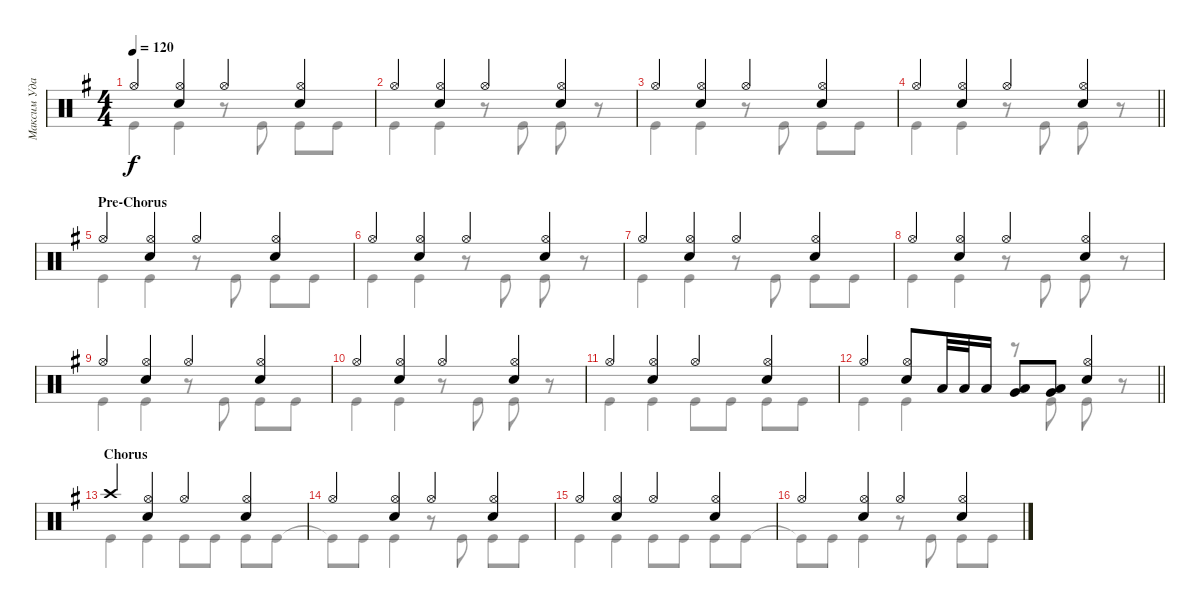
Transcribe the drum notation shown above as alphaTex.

\track ("Максим Удалов" "Максим Уда") {instrument percussion}
\staff {score}
\articulation defaults
\voice
\ts (4 4)
\tempo 120
\clef neutral
\ks g "Hi-Hat (open)".4{dy f}
("Snare (hit) 2" "Hi-Hat (open)").4 "Hi-Hat (open)".4 ("Snare (hit) 2" "Hi-Hat (open)").4 |
"Hi-Hat (open)".4 ("Snare (hit) 2" "Hi-Hat (open)").4 "Hi-Hat (open)".4 ("Snare (hit) 2" "Hi-Hat (open)").4 |
"Hi-Hat (open)".4 ("Snare (hit) 2" "Hi-Hat (open)").4 "Hi-Hat (open)".4 ("Snare (hit) 2" "Hi-Hat (open)").4 |
\barLineRight lightlight "Hi-Hat (open)".4
("Snare (hit) 2" "Hi-Hat (open)").4 "Hi-Hat (open)".4 ("Snare (hit) 2" "Hi-Hat (open)").4 |
\section ("" "Pre-Chorus")
"Hi-Hat (open)".4 ("Snare (hit) 2" "Hi-Hat (open)").4 "Hi-Hat (open)".4 ("Snare (hit) 2" "Hi-Hat (open)").4 |
"Hi-Hat (open)".4 ("Snare (hit) 2" "Hi-Hat (open)").4 "Hi-Hat (open)".4 ("Snare (hit) 2" "Hi-Hat (open)").4 |
"Hi-Hat (open)".4 ("Snare (hit) 2" "Hi-Hat (open)").4 "Hi-Hat (open)".4 ("Snare (hit) 2" "Hi-Hat (open)").4 |
"Hi-Hat (open)".4 ("Snare (hit) 2" "Hi-Hat (open)").4 "Hi-Hat (open)".4 ("Snare (hit) 2" "Hi-Hat (open)").4 |
"Hi-Hat (open)".4 ("Snare (hit) 2" "Hi-Hat (open)").4 "Hi-Hat (open)".4 ("Snare (hit) 2" "Hi-Hat (open)").4 |
"Hi-Hat (open)".4 ("Snare (hit) 2" "Hi-Hat (open)").4 "Hi-Hat (open)".4 ("Snare (hit) 2" "Hi-Hat (open)").4 |
"Hi-Hat (open)".4 ("Snare (hit) 2" "Hi-Hat (open)").4 "Hi-Hat (open)".4 ("Snare (hit) 2" "Hi-Hat (open)").4 |
\barLineRight lightlight "Hi-Hat (open)".4
("Hi-Hat (open)" "Snare (hit) 2").8 "Low Tom (hit)".32 "Low Tom (hit)".32 "Low Tom (hit)".16 ("Very Low Tom (hit)" "Low Tom (hit)").8 ("Very Low Tom (hit)" "Low Tom (hit)").8 ("Snare (hit) 2" "Hi-Hat (open)").4 |
\section ("" "Chorus")
"Crash high (hit)".4 ("Snare (hit) 2" "Hi-Hat (open)").4 "Hi-Hat (open)".4 ("Snare (hit) 2" "Hi-Hat (open)").4 |
"Hi-Hat (open)".4 ("Hi-Hat (open)" "Snare (hit) 2").4 "Hi-Hat (open)".4 ("Hi-Hat (open)" "Snare (hit) 2").4 |
"Hi-Hat (open)".4 ("Snare (hit) 2" "Hi-Hat (open)").4 "Hi-Hat (open)".4 ("Snare (hit) 2" "Hi-Hat (open)").4 |
"Hi-Hat (open)".4 ("Hi-Hat (open)" "Snare (hit) 2").4 "Hi-Hat (open)".4 ("Hi-Hat (open)" "Snare (hit) 2").4
\voice
\clef neutral
\ottava regular
\simile none
\ks g "Kick (hit)".4{dy f} "Kick (hit)".4
r.8 "Kick (hit)".8 "Kick (hit)".8 "Kick (hit)".8 |
"Kick (hit)".4 "Kick (hit)".4 r.8 "Kick (hit)".8 "Kick (hit)".8 r.8 |
"Kick (hit)".4 "Kick (hit)".4 r.8 "Kick (hit)".8 "Kick (hit)".8 "Kick (hit)".8 |
\barLineRight lightlight "Kick (hit)".4 "Kick (hit)".4
r.8 "Kick (hit)".8 "Kick (hit)".8 r.8 |
"Kick (hit)".4 "Kick (hit)".4 r.8 "Kick (hit)".8 "Kick (hit)".8 "Kick (hit)".8 |
"Kick (hit)".4 "Kick (hit)".4 r.8 "Kick (hit)".8 "Kick (hit)".8 r.8 |
"Kick (hit)".4 "Kick (hit)".4 r.8 "Kick (hit)".8 "Kick (hit)".8 "Kick (hit)".8 |
"Kick (hit)".4 "Kick (hit)".4 r.8 "Kick (hit)".8 "Kick (hit)".8 r.8 |
"Kick (hit)".4 "Kick (hit)".4 r.8 "Kick (hit)".8 "Kick (hit)".8 "Kick (hit)".8 |
"Kick (hit)".4 "Kick (hit)".4 r.8 "Kick (hit)".8 "Kick (hit)".8 r.8 |
"Kick (hit)".4 "Kick (hit)".4 "Kick (hit)".8 "Kick (hit)".8 "Kick (hit)".8 "Kick (hit)".8 |
\barLineRight lightlight "Kick (hit)".4 "Kick (hit)".4
r.8 "Kick (hit)".8 "Kick (hit)".8 r.8 |
"Kick (hit)".4 "Kick (hit)".4 "Kick (hit)".8 "Kick (hit)".8 "Kick (hit)".8 "Kick (hit)".8 |
"Kick (hit)"{t}.8 "Kick (hit)".8 "Kick (hit)".4 r.8 "Kick (hit)".8 "Kick (hit)".8 "Kick (hit)".8 |
"Kick (hit)".4 "Kick (hit)".4 "Kick (hit)".8 "Kick (hit)".8 "Kick (hit)".8 "Kick (hit)".8 |
"Kick (hit)"{t}.8 "Kick (hit)".8 "Kick (hit)".4 r.8 "Kick (hit)".8 "Kick (hit)".8 "Kick (hit)".8
